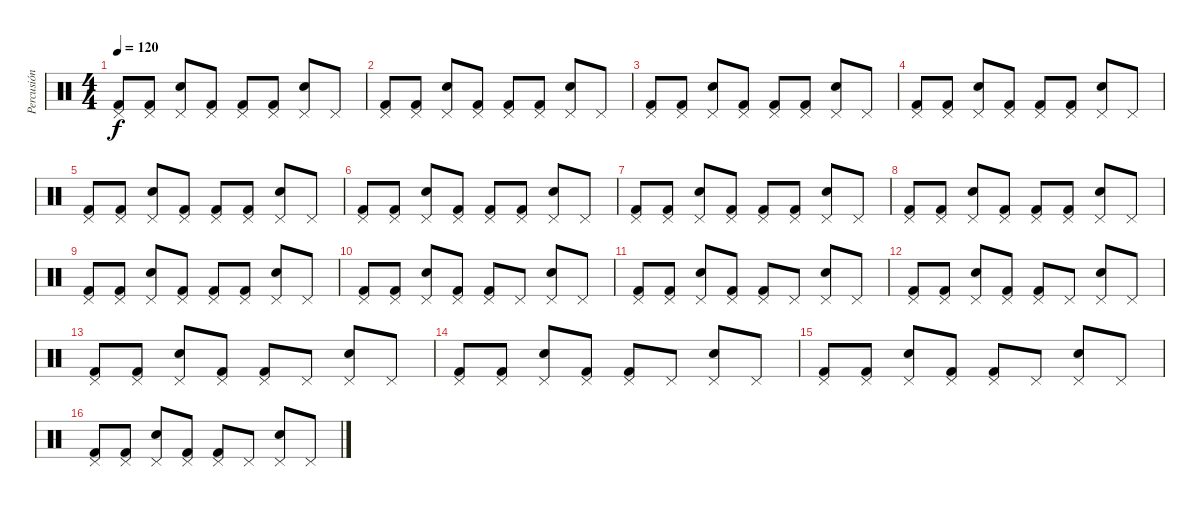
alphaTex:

\track ("Percusión" "Percusión") {instrument percussion}
\staff {score}
\articulation defaults
\ts (4 4)
\tempo 120
\clef neutral
\ks c
("Pedal Hi-Hat (hit)" "Kick (hit) 2").8{dy f} ("Pedal Hi-Hat (hit)" "Kick (hit) 2").8 ("Pedal Hi-Hat (hit)" "Electric Snare (hit)").8 ("Pedal Hi-Hat (hit)" "Kick (hit) 2").8 ("Pedal Hi-Hat (hit)" "Kick (hit) 2").8 ("Pedal Hi-Hat (hit)" "Kick (hit) 2").8 ("Pedal Hi-Hat (hit)" "Electric Snare (hit)").8 "Pedal Hi-Hat (hit)".8 |
("Pedal Hi-Hat (hit)" "Kick (hit) 2").8 ("Pedal Hi-Hat (hit)" "Kick (hit) 2").8 ("Pedal Hi-Hat (hit)" "Electric Snare (hit)").8 ("Pedal Hi-Hat (hit)" "Kick (hit) 2").8 ("Pedal Hi-Hat (hit)" "Kick (hit) 2").8 ("Pedal Hi-Hat (hit)" "Kick (hit) 2").8 ("Pedal Hi-Hat (hit)" "Electric Snare (hit)").8 "Pedal Hi-Hat (hit)".8 |
("Pedal Hi-Hat (hit)" "Kick (hit) 2").8 ("Pedal Hi-Hat (hit)" "Kick (hit) 2").8 ("Pedal Hi-Hat (hit)" "Electric Snare (hit)").8 ("Pedal Hi-Hat (hit)" "Kick (hit) 2").8 ("Pedal Hi-Hat (hit)" "Kick (hit) 2").8 ("Pedal Hi-Hat (hit)" "Kick (hit) 2").8 ("Pedal Hi-Hat (hit)" "Electric Snare (hit)").8 "Pedal Hi-Hat (hit)".8 |
("Pedal Hi-Hat (hit)" "Kick (hit) 2").8 ("Pedal Hi-Hat (hit)" "Kick (hit) 2").8 ("Pedal Hi-Hat (hit)" "Electric Snare (hit)").8 ("Pedal Hi-Hat (hit)" "Kick (hit) 2").8 ("Pedal Hi-Hat (hit)" "Kick (hit) 2").8 ("Pedal Hi-Hat (hit)" "Kick (hit) 2").8 ("Pedal Hi-Hat (hit)" "Electric Snare (hit)").8 "Pedal Hi-Hat (hit)".8 |
("Pedal Hi-Hat (hit)" "Kick (hit) 2").8 ("Pedal Hi-Hat (hit)" "Kick (hit) 2").8 ("Pedal Hi-Hat (hit)" "Electric Snare (hit)").8 ("Pedal Hi-Hat (hit)" "Kick (hit) 2").8 ("Pedal Hi-Hat (hit)" "Kick (hit) 2").8 ("Pedal Hi-Hat (hit)" "Kick (hit) 2").8 ("Pedal Hi-Hat (hit)" "Electric Snare (hit)").8 "Pedal Hi-Hat (hit)".8 |
("Pedal Hi-Hat (hit)" "Kick (hit) 2").8 ("Pedal Hi-Hat (hit)" "Kick (hit) 2").8 ("Pedal Hi-Hat (hit)" "Electric Snare (hit)").8 ("Pedal Hi-Hat (hit)" "Kick (hit) 2").8 ("Pedal Hi-Hat (hit)" "Kick (hit) 2").8 ("Pedal Hi-Hat (hit)" "Kick (hit) 2").8 ("Pedal Hi-Hat (hit)" "Electric Snare (hit)").8 "Pedal Hi-Hat (hit)".8 |
("Pedal Hi-Hat (hit)" "Kick (hit) 2").8 ("Pedal Hi-Hat (hit)" "Kick (hit) 2").8 ("Pedal Hi-Hat (hit)" "Electric Snare (hit)").8 ("Pedal Hi-Hat (hit)" "Kick (hit) 2").8 ("Pedal Hi-Hat (hit)" "Kick (hit) 2").8 ("Pedal Hi-Hat (hit)" "Kick (hit) 2").8 ("Pedal Hi-Hat (hit)" "Electric Snare (hit)").8 "Pedal Hi-Hat (hit)".8 |
("Pedal Hi-Hat (hit)" "Kick (hit) 2").8 ("Pedal Hi-Hat (hit)" "Kick (hit) 2").8 ("Pedal Hi-Hat (hit)" "Electric Snare (hit)").8 ("Pedal Hi-Hat (hit)" "Kick (hit) 2").8 ("Pedal Hi-Hat (hit)" "Kick (hit) 2").8 ("Pedal Hi-Hat (hit)" "Kick (hit) 2").8 ("Pedal Hi-Hat (hit)" "Electric Snare (hit)").8 "Pedal Hi-Hat (hit)".8 |
("Pedal Hi-Hat (hit)" "Kick (hit) 2").8 ("Pedal Hi-Hat (hit)" "Kick (hit) 2").8 ("Pedal Hi-Hat (hit)" "Electric Snare (hit)").8 ("Pedal Hi-Hat (hit)" "Kick (hit) 2").8 ("Pedal Hi-Hat (hit)" "Kick (hit) 2").8 ("Pedal Hi-Hat (hit)" "Kick (hit) 2").8 ("Pedal Hi-Hat (hit)" "Electric Snare (hit)").8 "Pedal Hi-Hat (hit)".8 |
("Pedal Hi-Hat (hit)" "Kick (hit) 2").8 ("Pedal Hi-Hat (hit)" "Kick (hit) 2").8 ("Pedal Hi-Hat (hit)" "Electric Snare (hit)").8 ("Pedal Hi-Hat (hit)" "Kick (hit) 2").8 ("Pedal Hi-Hat (hit)" "Kick (hit) 2").8 "Pedal Hi-Hat (hit)".8 ("Pedal Hi-Hat (hit)" "Snare (hit) 2").8 "Pedal Hi-Hat (hit)".8 |
("Pedal Hi-Hat (hit)" "Kick (hit) 2").8 ("Pedal Hi-Hat (hit)" "Kick (hit) 2").8 ("Pedal Hi-Hat (hit)" "Electric Snare (hit)").8 ("Pedal Hi-Hat (hit)" "Kick (hit) 2").8 ("Pedal Hi-Hat (hit)" "Kick (hit) 2").8 "Pedal Hi-Hat (hit)".8 ("Pedal Hi-Hat (hit)" "Snare (hit) 2").8 "Pedal Hi-Hat (hit)".8 |
("Pedal Hi-Hat (hit)" "Kick (hit) 2").8 ("Pedal Hi-Hat (hit)" "Kick (hit) 2").8 ("Pedal Hi-Hat (hit)" "Electric Snare (hit)").8 ("Pedal Hi-Hat (hit)" "Kick (hit) 2").8 ("Pedal Hi-Hat (hit)" "Kick (hit) 2").8 "Pedal Hi-Hat (hit)".8 ("Pedal Hi-Hat (hit)" "Snare (hit) 2").8 "Pedal Hi-Hat (hit)".8 |
("Pedal Hi-Hat (hit)" "Kick (hit) 2").8 ("Pedal Hi-Hat (hit)" "Kick (hit) 2").8 ("Pedal Hi-Hat (hit)" "Electric Snare (hit)").8 ("Pedal Hi-Hat (hit)" "Kick (hit) 2").8 ("Pedal Hi-Hat (hit)" "Kick (hit) 2").8 "Pedal Hi-Hat (hit)".8 ("Pedal Hi-Hat (hit)" "Snare (hit) 2").8 "Pedal Hi-Hat (hit)".8 |
("Pedal Hi-Hat (hit)" "Kick (hit) 2").8 ("Pedal Hi-Hat (hit)" "Kick (hit) 2").8 ("Pedal Hi-Hat (hit)" "Electric Snare (hit)").8 ("Pedal Hi-Hat (hit)" "Kick (hit) 2").8 ("Pedal Hi-Hat (hit)" "Kick (hit) 2").8 "Pedal Hi-Hat (hit)".8 ("Pedal Hi-Hat (hit)" "Snare (hit) 2").8 "Pedal Hi-Hat (hit)".8 |
("Pedal Hi-Hat (hit)" "Kick (hit) 2").8 ("Pedal Hi-Hat (hit)" "Kick (hit) 2").8 ("Pedal Hi-Hat (hit)" "Electric Snare (hit)").8 ("Pedal Hi-Hat (hit)" "Kick (hit) 2").8 ("Pedal Hi-Hat (hit)" "Kick (hit) 2").8 "Pedal Hi-Hat (hit)".8 ("Pedal Hi-Hat (hit)" "Snare (hit) 2").8 "Pedal Hi-Hat (hit)".8 |
("Pedal Hi-Hat (hit)" "Kick (hit) 2").8 ("Pedal Hi-Hat (hit)" "Kick (hit) 2").8 ("Pedal Hi-Hat (hit)" "Electric Snare (hit)").8 ("Pedal Hi-Hat (hit)" "Kick (hit) 2").8 ("Pedal Hi-Hat (hit)" "Kick (hit) 2").8 "Pedal Hi-Hat (hit)".8 ("Pedal Hi-Hat (hit)" "Snare (hit) 2").8 "Pedal Hi-Hat (hit)".8
